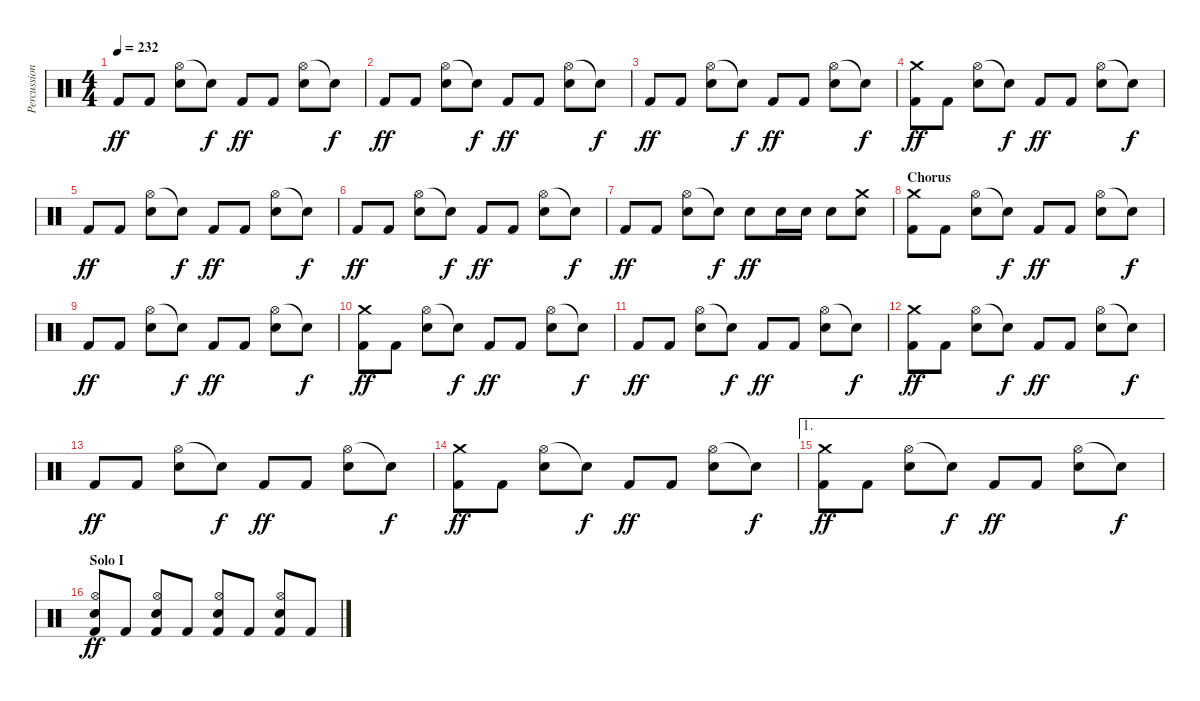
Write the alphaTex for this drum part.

\track ("Percussion" "Percussion") {instrument percussion}
\staff {score}
\articulation defaults
\ts (4 4)
\tempo 232
\clef neutral
\ks c "Kick (hit) 2".8{dy ff} "Kick (hit) 2".8
("Hi-Hat (open)" "Snare (hit) 2").8 "Snare (hit)"{t}.8{dy f} "Kick (hit) 2".8{dy ff} "Kick (hit) 2".8 ("Hi-Hat (open)" "Snare (hit) 2").8 "Snare (hit)"{t}.8{dy f} |
"Kick (hit) 2".8{dy ff} "Kick (hit) 2".8 ("Hi-Hat (open)" "Snare (hit) 2").8 "Snare (hit)"{t}.8{dy f} "Kick (hit) 2".8{dy ff} "Kick (hit) 2".8 ("Hi-Hat (open)" "Snare (hit) 2").8 "Snare (hit)"{t}.8{dy f} |
"Kick (hit) 2".8{dy ff} "Kick (hit) 2".8 ("Hi-Hat (open)" "Snare (hit) 2").8 "Snare (hit)"{t}.8{dy f} "Kick (hit) 2".8{dy ff} "Kick (hit) 2".8 ("Hi-Hat (open)" "Snare (hit) 2").8 "Snare (hit)"{t}.8{dy f} |
("Crash medium (hit)" "Kick (hit) 2").8{dy ff} "Kick (hit) 2".8 ("Hi-Hat (open)" "Snare (hit) 2").8 "Snare (hit)"{t}.8{dy f} "Kick (hit) 2".8{dy ff} "Kick (hit) 2".8 ("Hi-Hat (open)" "Snare (hit) 2").8 "Snare (hit)"{t}.8{dy f} |
"Kick (hit) 2".8{dy ff} "Kick (hit) 2".8 ("Hi-Hat (open)" "Snare (hit) 2").8 "Snare (hit)"{t}.8{dy f} "Kick (hit) 2".8{dy ff} "Kick (hit) 2".8 ("Hi-Hat (open)" "Snare (hit) 2").8 "Snare (hit)"{t}.8{dy f} |
"Kick (hit) 2".8{dy ff} "Kick (hit) 2".8 ("Hi-Hat (open)" "Snare (hit) 2").8 "Snare (hit)"{t}.8{dy f} "Kick (hit) 2".8{dy ff} "Kick (hit) 2".8 ("Hi-Hat (open)" "Snare (hit) 2").8 "Snare (hit)"{t}.8{dy f} |
"Kick (hit) 2".8{dy ff} "Kick (hit) 2".8 ("Hi-Hat (open)" "Snare (hit) 2").8 "Snare (hit)"{t}.8{dy f} "Snare (hit) 2".8{dy ff} "Snare (hit) 2".16 "Snare (hit) 2".16 "Snare (hit) 2".8 ("Crash medium (hit)" "Snare (hit) 2").8 |
\section ("" "Chorus ")
("Crash medium (hit)" "Kick (hit) 2").8 "Kick (hit) 2".8 ("Hi-Hat (open)" "Snare (hit) 2").8 "Snare (hit)"{t}.8{dy f} "Kick (hit) 2".8{dy ff} "Kick (hit) 2".8 ("Hi-Hat (open)" "Snare (hit) 2").8 "Snare (hit)"{t}.8{dy f} |
"Kick (hit) 2".8{dy ff} "Kick (hit) 2".8 ("Hi-Hat (open)" "Snare (hit) 2").8 "Snare (hit)"{t}.8{dy f} "Kick (hit) 2".8{dy ff} "Kick (hit) 2".8 ("Hi-Hat (open)" "Snare (hit) 2").8 "Snare (hit)"{t}.8{dy f} |
("Crash medium (hit)" "Kick (hit) 2").8{dy ff} "Kick (hit) 2".8 ("Hi-Hat (open)" "Snare (hit) 2").8 "Snare (hit)"{t}.8{dy f} "Kick (hit) 2".8{dy ff} "Kick (hit) 2".8 ("Hi-Hat (open)" "Snare (hit) 2").8 "Snare (hit)"{t}.8{dy f} |
"Kick (hit) 2".8{dy ff} "Kick (hit) 2".8 ("Hi-Hat (open)" "Snare (hit) 2").8 "Snare (hit)"{t}.8{dy f} "Kick (hit) 2".8{dy ff} "Kick (hit) 2".8 ("Hi-Hat (open)" "Snare (hit) 2").8 "Snare (hit)"{t}.8{dy f} |
("Crash medium (hit)" "Kick (hit) 2").8{dy ff} "Kick (hit) 2".8 ("Hi-Hat (open)" "Snare (hit) 2").8 "Snare (hit)"{t}.8{dy f} "Kick (hit) 2".8{dy ff} "Kick (hit) 2".8 ("Hi-Hat (open)" "Snare (hit) 2").8 "Snare (hit)"{t}.8{dy f} |
"Kick (hit) 2".8{dy ff} "Kick (hit) 2".8 ("Hi-Hat (open)" "Snare (hit) 2").8 "Snare (hit)"{t}.8{dy f} "Kick (hit) 2".8{dy ff} "Kick (hit) 2".8 ("Hi-Hat (open)" "Snare (hit) 2").8 "Snare (hit)"{t}.8{dy f} |
("Crash medium (hit)" "Kick (hit) 2").8{dy ff} "Kick (hit) 2".8 ("Hi-Hat (open)" "Snare (hit) 2").8 "Snare (hit)"{t}.8{dy f} "Kick (hit) 2".8{dy ff} "Kick (hit) 2".8 ("Hi-Hat (open)" "Snare (hit) 2").8 "Snare (hit)"{t}.8{dy f} |
\ae 1
("Crash medium (hit)" "Kick (hit) 2").8{dy ff} "Kick (hit) 2".8 ("Hi-Hat (open)" "Snare (hit) 2").8 "Snare (hit)"{t}.8{dy f} "Kick (hit) 2".8{dy ff} "Kick (hit) 2".8 ("Hi-Hat (open)" "Snare (hit) 2").8 "Snare (hit)"{t}.8{dy f} |
\section ("" "Solo I")
("Hi-Hat (open)" "Snare (hit) 2" "Kick (hit) 2").8{dy ff} "Kick (hit) 2".8 ("Hi-Hat (open)" "Snare (hit) 2" "Kick (hit) 2").8 "Kick (hit) 2".8 ("Hi-Hat (open)" "Snare (hit) 2" "Kick (hit) 2").8 "Kick (hit) 2".8 ("Hi-Hat (open)" "Snare (hit) 2" "Kick (hit) 2").8 "Kick (hit) 2".8
